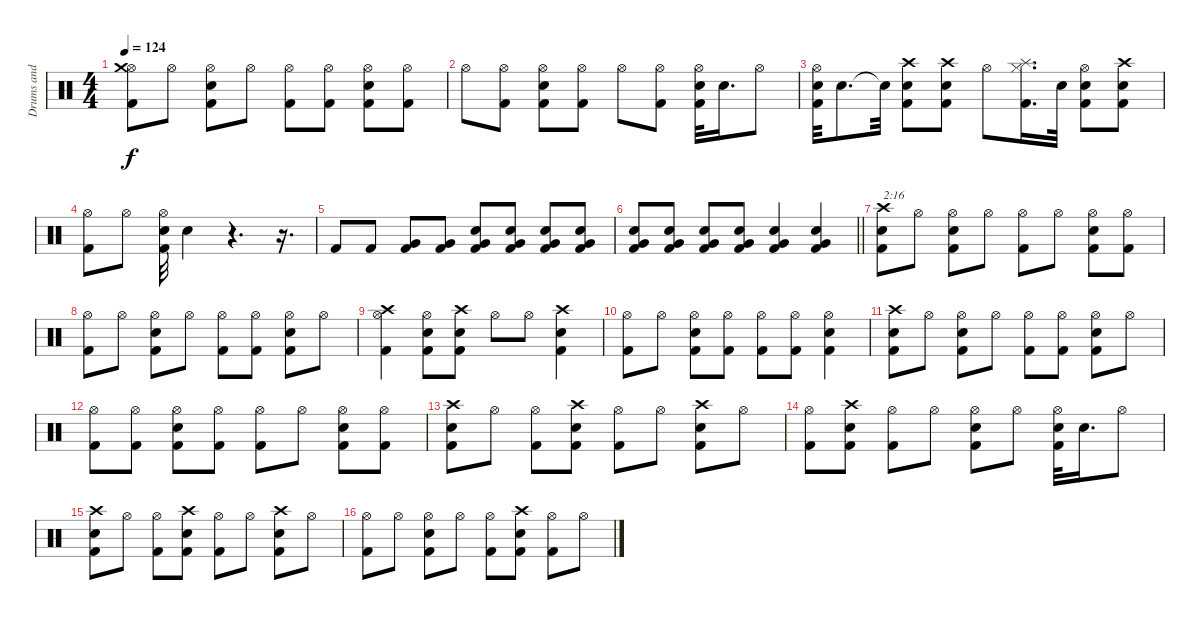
\track ("Drums and Percussie" "Drums and ") {instrument percussion}
\staff {score}
\articulation defaults
\ts (4 4)
\tempo 124
\clef neutral
\ks c
("Hi-Hat (open)" "Kick (hit) 2" "Crash medium (hit)").8{dy f} "Hi-Hat (open)".8 ("Snare (hit) 2" "Hi-Hat (open)" "Kick (hit) 2").8 "Hi-Hat (open)".8 ("Kick (hit) 2" "Hi-Hat (open)").8 ("Kick (hit) 2" "Hi-Hat (open)").8 ("Snare (hit) 2" "Kick (hit) 2" "Hi-Hat (open)").8 ("Hi-Hat (open)" "Kick (hit) 2").8 |
"Hi-Hat (open)".8 ("Hi-Hat (open)" "Kick (hit) 2").8 ("Hi-Hat (open)" "Kick (hit) 2" "Snare (hit) 2").8 ("Hi-Hat (open)" "Kick (hit) 2").8 "Hi-Hat (open)".8 ("Hi-Hat (open)" "Kick (hit) 2").8 ("Snare (hit) 2" "Kick (hit) 2" "Hi-Hat (open)").32 "Snare (hit) 2".16{d} "Hi-Hat (open)".8 |
("Kick (hit) 2" "Hi-Hat (open)" "Snare (hit) 2").32 "Snare (hit) 2".8{d} "Snare (hit)"{t}.32 ("Crash high (hit)" "Kick (hit) 2" "Snare (hit) 2").8 ("Crash high (hit)" "Kick (hit) 2" "Snare (hit) 2").8 "Hi-Hat (open)".8 ("Kick (hit) 2" "Hi-Hat (closed)" "Splash (hit)").16{d} "Snare (hit) 2".32 ("Hi-Hat (open)" "Kick (hit) 2" "Snare (hit) 2").8 ("Snare (hit) 2" "Crash high (hit)" "Kick (hit) 2").8 |
("Kick (hit) 2" "Hi-Hat (open)").8 "Hi-Hat (open)".8 ("Snare (hit) 2" "Hi-Hat (open)" "Kick (hit) 2").32 "Snare (hit) 2".4 r.4{d} r.16{d} |
"Kick (hit) 2".8 "Kick (hit) 2".8 ("Very Low Tom (hit)" "Kick (hit) 2").8 ("Kick (hit) 2" "Very Low Tom (hit)").8 ("Very Low Tom (hit)" "Snare (hit) 2" "Kick (hit) 2").8 ("Kick (hit) 2" "Snare (hit) 2" "Very Low Tom (hit)").8 ("Snare (hit) 2" "Very Low Tom (hit)" "Kick (hit) 2").8 ("Kick (hit) 2" "Very Low Tom (hit)" "Snare (hit) 2").8 |
\barLineRight lightlight
("Very Low Tom (hit)" "Snare (hit) 2" "Kick (hit) 2").8 ("Very Low Tom (hit)" "Snare (hit) 2" "Kick (hit) 2").8 ("Very Low Tom (hit)" "Snare (hit) 2" "Kick (hit) 2").8 ("Very Low Tom (hit)" "Kick (hit) 2" "Snare (hit) 2").8 ("Very Low Tom (hit)" "Snare (hit) 2" "Kick (hit) 2").4 ("Kick (hit) 2" "Snare (hit) 2" "Very Low Tom (hit)").4 |
("Snare (hit) 2" "Crash high (hit)" "Kick (hit) 2").8{txt "2:16"} "Hi-Hat (open)".8 ("Hi-Hat (open)" "Snare (hit) 2" "Kick (hit) 2").8 "Hi-Hat (open)".8 ("Kick (hit) 2" "Hi-Hat (open)").8 "Hi-Hat (open)".8 ("Snare (hit) 2" "Kick (hit) 2" "Hi-Hat (open)").8 ("Kick (hit) 2" "Hi-Hat (open)").8 |
("Hi-Hat (open)" "Kick (hit) 2").8 "Hi-Hat (open)".8 ("Snare (hit) 2" "Hi-Hat (open)" "Kick (hit) 2").8 "Hi-Hat (open)".8 ("Hi-Hat (open)" "Kick (hit) 2").8 ("Hi-Hat (open)" "Kick (hit) 2").8 ("Snare (hit) 2" "Kick (hit) 2" "Hi-Hat (open)").8 "Hi-Hat (open)".8 |
("Kick (hit) 2" "Hi-Hat (open)" "Crash high (hit)").4 ("Kick (hit) 2" "Hi-Hat (open)" "Snare (hit) 2").8 ("Crash high (hit)" "Kick (hit) 2" "Snare (hit) 2").8 "Hi-Hat (open)".8 "Hi-Hat (open)".8 ("Snare (hit) 2" "Kick (hit) 2" "Crash high (hit)").4 |
("Kick (hit) 2" "Hi-Hat (open)").8 "Hi-Hat (open)".8 ("Snare (hit) 2" "Hi-Hat (open)" "Kick (hit) 2").8 ("Kick (hit) 2" "Hi-Hat (open)").8 ("Hi-Hat (open)" "Kick (hit) 2").8 ("Hi-Hat (open)" "Kick (hit) 2").8 ("Snare (hit) 2" "Hi-Hat (open)" "Kick (hit) 2").4 |
("Snare (hit) 2" "Kick (hit) 2" "Crash high (hit)").8 "Hi-Hat (open)".8 ("Snare (hit) 2" "Hi-Hat (open)" "Kick (hit) 2").8 "Hi-Hat (open)".8 ("Hi-Hat (open)" "Kick (hit) 2").8 ("Kick (hit) 2" "Hi-Hat (open)").8 ("Snare (hit) 2" "Kick (hit) 2" "Hi-Hat (open)").8 "Hi-Hat (open)".8 |
("Kick (hit) 2" "Hi-Hat (open)").8 ("Hi-Hat (open)" "Kick (hit) 2").8 ("Snare (hit) 2" "Hi-Hat (open)" "Kick (hit) 2").8 ("Hi-Hat (open)" "Kick (hit) 2").8 ("Kick (hit) 2" "Hi-Hat (open)").8 "Hi-Hat (open)".8 ("Snare (hit) 2" "Kick (hit) 2" "Hi-Hat (open)").8 ("Hi-Hat (open)" "Kick (hit) 2").8 |
("Snare (hit) 2" "Crash high (hit)" "Kick (hit) 2").8 "Hi-Hat (open)".8 ("Kick (hit) 2" "Hi-Hat (open)").8 ("Kick (hit) 2" "Crash high (hit)" "Snare (hit) 2").8 ("Hi-Hat (open)" "Kick (hit) 2").8 "Hi-Hat (open)".8 ("Snare (hit) 2" "Crash high (hit)" "Kick (hit) 2").8 "Hi-Hat (open)".8 |
("Kick (hit) 2" "Hi-Hat (open)").8 ("Crash high (hit)" "Snare (hit) 2" "Kick (hit) 2").8 ("Kick (hit) 2" "Hi-Hat (open)").8 "Hi-Hat (open)".8 ("Hi-Hat (open)" "Kick (hit) 2" "Snare (hit) 2").8 "Hi-Hat (open)".8 ("Snare (hit) 2" "Kick (hit) 2" "Hi-Hat (open)").32 "Snare (hit) 2".16{d} "Hi-Hat (open)".8 |
("Kick (hit) 2" "Crash high (hit)" "Snare (hit) 2").8 "Hi-Hat (open)".8 ("Hi-Hat (open)" "Kick (hit) 2").8 ("Snare (hit) 2" "Kick (hit) 2" "Crash high (hit)").8 ("Kick (hit) 2" "Hi-Hat (open)").8 "Hi-Hat (open)".8 ("Snare (hit) 2" "Crash high (hit)" "Kick (hit) 2").8 "Hi-Hat (open)".8 |
("Kick (hit) 2" "Hi-Hat (open)").8 "Hi-Hat (open)".8 ("Snare (hit) 2" "Hi-Hat (open)" "Kick (hit) 2").8 "Hi-Hat (open)".8 ("Kick (hit) 2" "Hi-Hat (open)").8 ("Snare (hit) 2" "Kick (hit) 2" "Crash high (hit)").8 ("Hi-Hat (open)" "Kick (hit) 2").8 "Hi-Hat (open)".8
